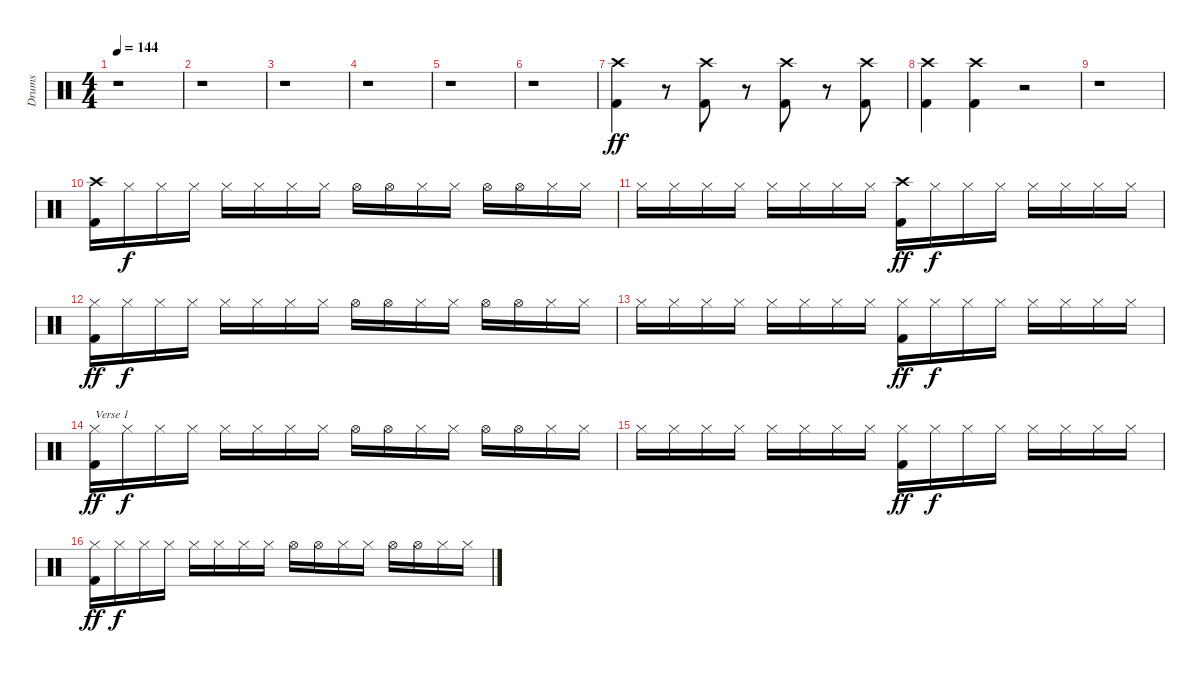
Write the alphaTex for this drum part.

\track ("Drums" "Drums") {instrument percussion}
\staff {score}
\articulation defaults
\ts (4 4)
\tempo 144
\clef neutral
\ks c
r.1{dy ff} |
r.1 |
r.1 |
r.1 |
r.1 |
r.1 |
("Crash high (hit)" "Kick (hit) 2").4 r.8 ("Crash high (hit)" "Kick (hit) 2").8 r.8 ("Crash high (hit)" "Kick (hit) 2").8 r.8 ("Crash high (hit)" "Kick (hit) 2").8 |
("Crash high (hit)" "Kick (hit) 2").4 ("Crash high (hit)" "Kick (hit) 2").4 r.2 |
r.1 |
("Crash high (hit)" "Kick (hit) 2").16 "Hi-Hat (closed)".16{dy f} "Hi-Hat (closed)".16 "Hi-Hat (closed)".16 "Hi-Hat (closed)".16 "Hi-Hat (closed)".16 "Hi-Hat (closed)".16 "Hi-Hat (closed)".16 "Hi-Hat (open)".16 "Hi-Hat (open)".16 "Hi-Hat (closed)".16 "Hi-Hat (closed)".16 "Hi-Hat (open)".16 "Hi-Hat (open)".16 "Hi-Hat (closed)".16 "Hi-Hat (closed)".16 |
"Hi-Hat (closed)".16 "Hi-Hat (closed)".16 "Hi-Hat (closed)".16 "Hi-Hat (closed)".16 "Hi-Hat (closed)".16 "Hi-Hat (closed)".16 "Hi-Hat (closed)".16 "Hi-Hat (closed)".16 ("Crash high (hit)" "Kick (hit) 2").16{dy ff} "Hi-Hat (closed)".16{dy f} "Hi-Hat (closed)".16 "Hi-Hat (closed)".16 "Hi-Hat (closed)".16 "Hi-Hat (closed)".16 "Hi-Hat (closed)".16 "Hi-Hat (closed)".16 |
("Hi-Hat (closed)" "Kick (hit) 2").16{dy ff} "Hi-Hat (closed)".16{dy f} "Hi-Hat (closed)".16 "Hi-Hat (closed)".16 "Hi-Hat (closed)".16 "Hi-Hat (closed)".16 "Hi-Hat (closed)".16 "Hi-Hat (closed)".16 "Hi-Hat (open)".16 "Hi-Hat (open)".16 "Hi-Hat (closed)".16 "Hi-Hat (closed)".16 "Hi-Hat (open)".16 "Hi-Hat (open)".16 "Hi-Hat (closed)".16 "Hi-Hat (closed)".16 |
"Hi-Hat (closed)".16 "Hi-Hat (closed)".16 "Hi-Hat (closed)".16 "Hi-Hat (closed)".16 "Hi-Hat (closed)".16 "Hi-Hat (closed)".16 "Hi-Hat (closed)".16 "Hi-Hat (closed)".16 ("Hi-Hat (closed)" "Kick (hit) 2").16{dy ff} "Hi-Hat (closed)".16{dy f} "Hi-Hat (closed)".16 "Hi-Hat (closed)".16 "Hi-Hat (closed)".16 "Hi-Hat (closed)".16 "Hi-Hat (closed)".16 "Hi-Hat (closed)".16 |
("Hi-Hat (closed)" "Kick (hit) 2").16{txt "Verse 1" dy ff} "Hi-Hat (closed)".16{dy f} "Hi-Hat (closed)".16 "Hi-Hat (closed)".16 "Hi-Hat (closed)".16 "Hi-Hat (closed)".16 "Hi-Hat (closed)".16 "Hi-Hat (closed)".16 "Hi-Hat (open)".16 "Hi-Hat (open)".16 "Hi-Hat (closed)".16 "Hi-Hat (closed)".16 "Hi-Hat (open)".16 "Hi-Hat (open)".16 "Hi-Hat (closed)".16 "Hi-Hat (closed)".16 |
"Hi-Hat (closed)".16 "Hi-Hat (closed)".16 "Hi-Hat (closed)".16 "Hi-Hat (closed)".16 "Hi-Hat (closed)".16 "Hi-Hat (closed)".16 "Hi-Hat (closed)".16 "Hi-Hat (closed)".16 ("Hi-Hat (closed)" "Kick (hit) 2").16{dy ff} "Hi-Hat (closed)".16{dy f} "Hi-Hat (closed)".16 "Hi-Hat (closed)".16 "Hi-Hat (closed)".16 "Hi-Hat (closed)".16 "Hi-Hat (closed)".16 "Hi-Hat (closed)".16 |
("Hi-Hat (closed)" "Kick (hit) 2").16{dy ff} "Hi-Hat (closed)".16{dy f} "Hi-Hat (closed)".16 "Hi-Hat (closed)".16 "Hi-Hat (closed)".16 "Hi-Hat (closed)".16 "Hi-Hat (closed)".16 "Hi-Hat (closed)".16 "Hi-Hat (open)".16 "Hi-Hat (open)".16 "Hi-Hat (closed)".16 "Hi-Hat (closed)".16 "Hi-Hat (open)".16 "Hi-Hat (open)".16 "Hi-Hat (closed)".16 "Hi-Hat (closed)".16
